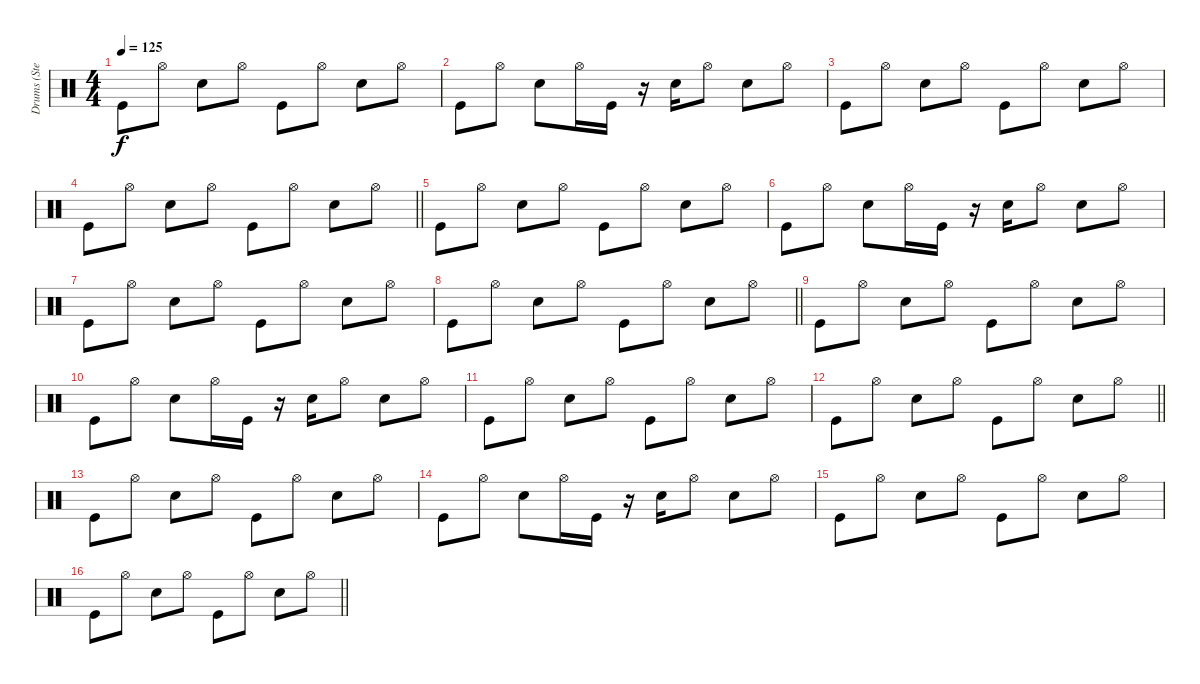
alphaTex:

\track ("Drums (Steve)" "Drums (Ste") {instrument percussion}
\staff {score}
\articulation defaults
\ts (4 4)
\tempo 125
\clef neutral
\ks c "Kick (hit)".8{dy f} "Hi-Hat (open)".8 "Electric Snare (hit)".8 "Hi-Hat (open)".8 "Kick (hit)".8 "Hi-Hat (open)".8 "Electric Snare (hit)".8 "Hi-Hat (open)".8
|
"Kick (hit)".8 "Hi-Hat (open)".8 "Electric Snare (hit)".8 "Hi-Hat (open)".16 "Kick (hit)".16 r.16 "Electric Snare (hit)".16 "Hi-Hat (open)".8 "Electric Snare (hit)".8 "Hi-Hat (open)".8 |
"Kick (hit)".8 "Hi-Hat (open)".8 "Electric Snare (hit)".8 "Hi-Hat (open)".8 "Kick (hit)".8 "Hi-Hat (open)".8 "Electric Snare (hit)".8 "Hi-Hat (open)".8 |
\barLineRight lightlight "Kick (hit)".8 "Hi-Hat (open)".8 "Electric Snare (hit)".8 "Hi-Hat (open)".8 "Kick (hit)".8 "Hi-Hat (open)".8 "Electric Snare (hit)".8 "Hi-Hat (open)".8
|
"Kick (hit)".8 "Hi-Hat (open)".8 "Electric Snare (hit)".8 "Hi-Hat (open)".8 "Kick (hit)".8 "Hi-Hat (open)".8 "Electric Snare (hit)".8 "Hi-Hat (open)".8 |
"Kick (hit)".8 "Hi-Hat (open)".8 "Electric Snare (hit)".8 "Hi-Hat (open)".16 "Kick (hit)".16 r.16 "Electric Snare (hit)".16 "Hi-Hat (open)".8 "Electric Snare (hit)".8 "Hi-Hat (open)".8 |
"Kick (hit)".8 "Hi-Hat (open)".8 "Electric Snare (hit)".8 "Hi-Hat (open)".8 "Kick (hit)".8 "Hi-Hat (open)".8 "Electric Snare (hit)".8 "Hi-Hat (open)".8 |
\barLineRight lightlight "Kick (hit)".8 "Hi-Hat (open)".8 "Electric Snare (hit)".8 "Hi-Hat (open)".8 "Kick (hit)".8 "Hi-Hat (open)".8 "Electric Snare (hit)".8 "Hi-Hat (open)".8
|
"Kick (hit)".8 "Hi-Hat (open)".8 "Electric Snare (hit)".8 "Hi-Hat (open)".8 "Kick (hit)".8 "Hi-Hat (open)".8 "Electric Snare (hit)".8 "Hi-Hat (open)".8 |
"Kick (hit)".8 "Hi-Hat (open)".8 "Electric Snare (hit)".8 "Hi-Hat (open)".16 "Kick (hit)".16 r.16 "Electric Snare (hit)".16 "Hi-Hat (open)".8 "Electric Snare (hit)".8 "Hi-Hat (open)".8 |
"Kick (hit)".8 "Hi-Hat (open)".8 "Electric Snare (hit)".8 "Hi-Hat (open)".8 "Kick (hit)".8 "Hi-Hat (open)".8 "Electric Snare (hit)".8 "Hi-Hat (open)".8 |
\barLineRight lightlight "Kick (hit)".8 "Hi-Hat (open)".8 "Electric Snare (hit)".8 "Hi-Hat (open)".8 "Kick (hit)".8 "Hi-Hat (open)".8 "Electric Snare (hit)".8 "Hi-Hat (open)".8
|
"Kick (hit)".8 "Hi-Hat (open)".8 "Electric Snare (hit)".8 "Hi-Hat (open)".8 "Kick (hit)".8 "Hi-Hat (open)".8 "Electric Snare (hit)".8 "Hi-Hat (open)".8 |
"Kick (hit)".8 "Hi-Hat (open)".8 "Electric Snare (hit)".8 "Hi-Hat (open)".16 "Kick (hit)".16 r.16 "Electric Snare (hit)".16 "Hi-Hat (open)".8 "Electric Snare (hit)".8 "Hi-Hat (open)".8 |
"Kick (hit)".8 "Hi-Hat (open)".8 "Electric Snare (hit)".8 "Hi-Hat (open)".8 "Kick (hit)".8 "Hi-Hat (open)".8 "Electric Snare (hit)".8 "Hi-Hat (open)".8 |
\barLineRight lightlight "Kick (hit)".8 "Hi-Hat (open)".8 "Electric Snare (hit)".8 "Hi-Hat (open)".8 "Kick (hit)".8 "Hi-Hat (open)".8 "Electric Snare (hit)".8 "Hi-Hat (open)".8
